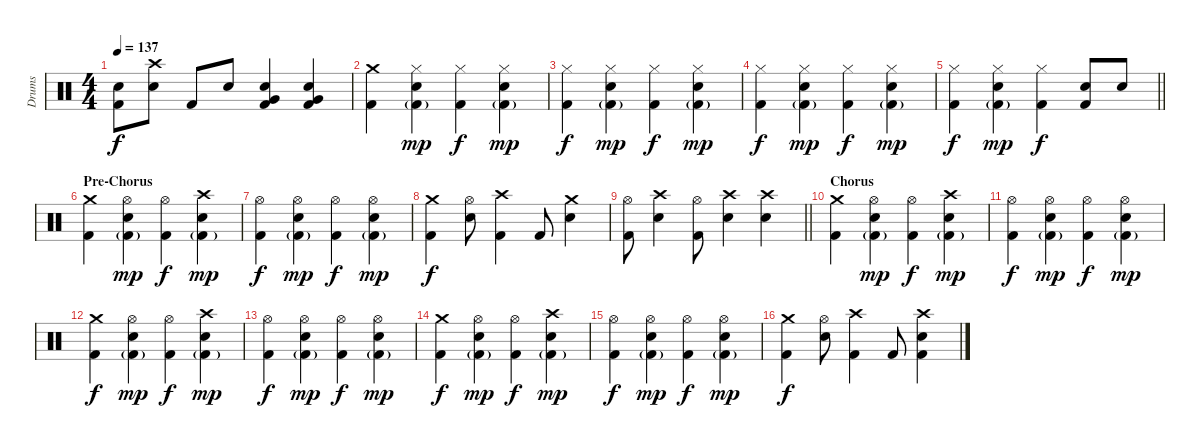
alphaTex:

\track ("Drums" "Drums") {instrument percussion}
\staff {score}
\articulation defaults
\ts (4 4)
\tempo 137
\clef neutral
\ks c
("Electric Snare (hit)" "Kick (hit) 2").8{dy f} ("Crash high (hit)" "Electric Snare (hit)").8 "Kick (hit) 2".8 "Electric Snare (hit)".8 ("Electric Snare (hit)" "Very Low Tom (hit)" "Kick (hit) 2").4 ("Electric Snare (hit)" "Very Low Tom (hit)" "Kick (hit) 2").4 |
("Crash medium (hit)" "Kick (hit) 2").4 ("Hi-Hat (closed)" "Electric Snare (hit)" "Kick (hit) 2"{g}).4{dy mp} ("Hi-Hat (closed)" "Kick (hit) 2").4{dy f} ("Hi-Hat (closed)" "Electric Snare (hit)" "Kick (hit) 2"{g}).4{dy mp} |
("Hi-Hat (closed)" "Kick (hit) 2").4{dy f} ("Hi-Hat (closed)" "Electric Snare (hit)" "Kick (hit) 2"{g}).4{dy mp} ("Hi-Hat (closed)" "Kick (hit) 2").4{dy f} ("Hi-Hat (closed)" "Electric Snare (hit)" "Kick (hit) 2"{g}).4{dy mp} |
("Hi-Hat (closed)" "Kick (hit) 2").4{dy f} ("Hi-Hat (closed)" "Electric Snare (hit)" "Kick (hit) 2"{g}).4{dy mp} ("Hi-Hat (closed)" "Kick (hit) 2").4{dy f} ("Hi-Hat (closed)" "Electric Snare (hit)" "Kick (hit) 2"{g}).4{dy mp} |
\barLineRight lightlight
("Hi-Hat (closed)" "Kick (hit) 2").4{dy f} ("Hi-Hat (closed)" "Electric Snare (hit)" "Kick (hit) 2"{g}).4{dy mp} ("Hi-Hat (closed)" "Kick (hit) 2").4{dy f} ("Electric Snare (hit)" "Kick (hit) 2").8 "Electric Snare (hit)".8 |
\section ("" "Pre-Chorus")
("Crash medium (hit)" "Kick (hit) 2").4 ("Hi-Hat (open)" "Electric Snare (hit)" "Kick (hit) 2"{g}).4{dy mp} ("Hi-Hat (open)" "Kick (hit) 2").4{dy f} ("Crash high (hit)" "Electric Snare (hit)" "Kick (hit) 2"{g}).4{dy mp} |
("Hi-Hat (open)" "Kick (hit) 2").4{dy f} ("Hi-Hat (open)" "Electric Snare (hit)" "Kick (hit) 2"{g}).4{dy mp} ("Hi-Hat (open)" "Kick (hit) 2").4{dy f} ("Hi-Hat (open)" "Electric Snare (hit)" "Kick (hit) 2"{g}).4{dy mp} |
("Crash medium (hit)" "Kick (hit) 2").4{dy f} ("Hi-Hat (open)" "Electric Snare (hit)").8 ("Crash high (hit)" "Kick (hit) 2").4 "Kick (hit) 2".8 ("Crash medium (hit)" "Electric Snare (hit)").4 |
\barLineRight lightlight
("Hi-Hat (open)" "Kick (hit) 2").8 ("Crash high (hit)" "Electric Snare (hit)").4 ("Hi-Hat (open)" "Kick (hit) 2").8 ("Crash high (hit)" "Electric Snare (hit)").4 ("Crash high (hit)" "Electric Snare (hit)").4 |
\section ("" "Chorus")
("Crash medium (hit)" "Kick (hit) 2").4 ("Hi-Hat (open)" "Electric Snare (hit)" "Kick (hit) 2"{g}).4{dy mp} ("Hi-Hat (open)" "Kick (hit) 2").4{dy f} ("Crash high (hit)" "Electric Snare (hit)" "Kick (hit) 2"{g}).4{dy mp} |
("Hi-Hat (open)" "Kick (hit) 2").4{dy f} ("Hi-Hat (open)" "Electric Snare (hit)" "Kick (hit) 2"{g}).4{dy mp} ("Hi-Hat (open)" "Kick (hit) 2").4{dy f} ("Hi-Hat (open)" "Electric Snare (hit)" "Kick (hit) 2"{g}).4{dy mp} |
("Crash medium (hit)" "Kick (hit) 2").4{dy f} ("Hi-Hat (open)" "Electric Snare (hit)" "Kick (hit) 2"{g}).4{dy mp} ("Hi-Hat (open)" "Kick (hit) 2").4{dy f} ("Crash high (hit)" "Electric Snare (hit)" "Kick (hit) 2"{g}).4{dy mp} |
("Hi-Hat (open)" "Kick (hit) 2").4{dy f} ("Hi-Hat (open)" "Electric Snare (hit)" "Kick (hit) 2"{g}).4{dy mp} ("Hi-Hat (open)" "Kick (hit) 2").4{dy f} ("Hi-Hat (open)" "Electric Snare (hit)" "Kick (hit) 2"{g}).4{dy mp} |
("Crash medium (hit)" "Kick (hit) 2").4{dy f} ("Hi-Hat (open)" "Electric Snare (hit)" "Kick (hit) 2"{g}).4{dy mp} ("Hi-Hat (open)" "Kick (hit) 2").4{dy f} ("Crash high (hit)" "Electric Snare (hit)" "Kick (hit) 2"{g}).4{dy mp} |
("Hi-Hat (open)" "Kick (hit) 2").4{dy f} ("Hi-Hat (open)" "Electric Snare (hit)" "Kick (hit) 2"{g}).4{dy mp} ("Hi-Hat (open)" "Kick (hit) 2").4{dy f} ("Hi-Hat (open)" "Electric Snare (hit)" "Kick (hit) 2"{g}).4{dy mp} |
("Crash medium (hit)" "Kick (hit) 2").4{dy f} ("Hi-Hat (open)" "Electric Snare (hit)").8 ("Crash high (hit)" "Kick (hit) 2").4 "Kick (hit) 2".8 ("Crash high (hit)" "Electric Snare (hit)" "Kick (hit) 2").4
